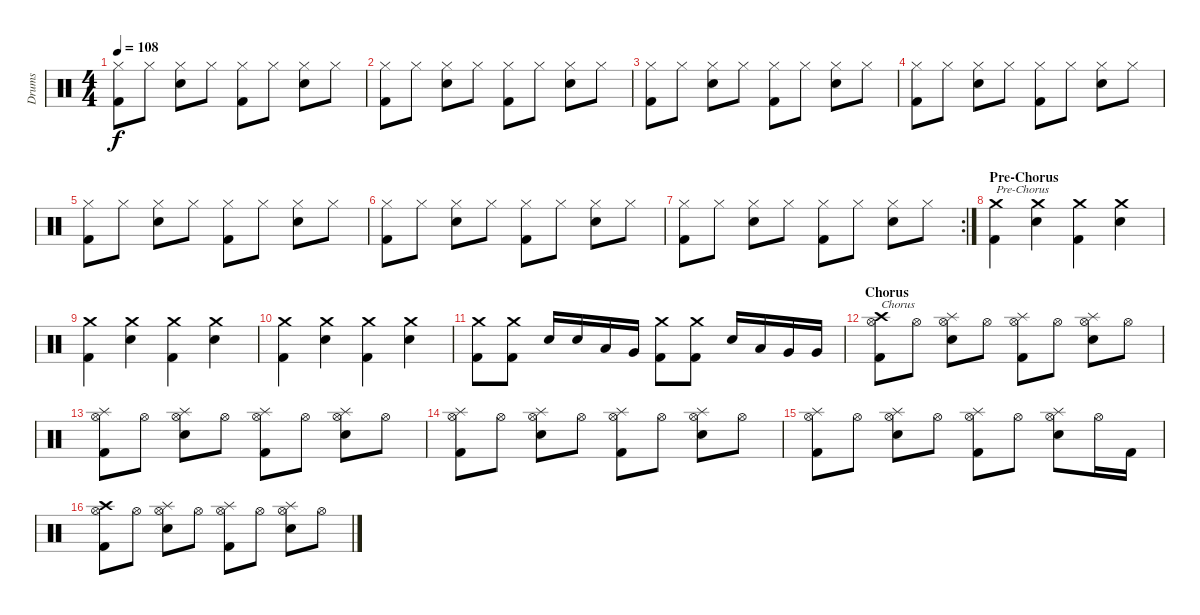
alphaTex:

\track ("Drums" "Drums") {instrument percussion}
\staff {score}
\articulation defaults
\ts (4 4)
\tempo 108
\clef neutral
\ks c
("Hi-Hat (closed)" "Kick (hit) 2").8{dy f} "Hi-Hat (closed)".8 ("Hi-Hat (closed)" "Snare (hit) 2").8 "Hi-Hat (closed)".8 ("Hi-Hat (closed)" "Kick (hit) 2").8 "Hi-Hat (closed)".8 ("Hi-Hat (closed)" "Snare (hit) 2").8 "Hi-Hat (closed)".8 |
("Hi-Hat (closed)" "Kick (hit) 2").8 "Hi-Hat (closed)".8 ("Hi-Hat (closed)" "Snare (hit) 2").8 "Hi-Hat (closed)".8 ("Hi-Hat (closed)" "Kick (hit) 2").8 "Hi-Hat (closed)".8 ("Hi-Hat (closed)" "Snare (hit) 2").8 "Hi-Hat (closed)".8 |
("Hi-Hat (closed)" "Kick (hit) 2").8 "Hi-Hat (closed)".8 ("Hi-Hat (closed)" "Snare (hit) 2").8 "Hi-Hat (closed)".8 ("Hi-Hat (closed)" "Kick (hit) 2").8 "Hi-Hat (closed)".8 ("Hi-Hat (closed)" "Snare (hit) 2").8 "Hi-Hat (closed)".8 |
("Hi-Hat (closed)" "Kick (hit) 2").8 "Hi-Hat (closed)".8 ("Hi-Hat (closed)" "Snare (hit) 2").8 "Hi-Hat (closed)".8 ("Hi-Hat (closed)" "Kick (hit) 2").8 "Hi-Hat (closed)".8 ("Hi-Hat (closed)" "Snare (hit) 2").8 "Hi-Hat (closed)".8 |
("Hi-Hat (closed)" "Kick (hit) 2").8 "Hi-Hat (closed)".8 ("Hi-Hat (closed)" "Snare (hit) 2").8 "Hi-Hat (closed)".8 ("Hi-Hat (closed)" "Kick (hit) 2").8 "Hi-Hat (closed)".8 ("Hi-Hat (closed)" "Snare (hit) 2").8 "Hi-Hat (closed)".8 |
("Hi-Hat (closed)" "Kick (hit) 2").8 "Hi-Hat (closed)".8 ("Hi-Hat (closed)" "Snare (hit) 2").8 "Hi-Hat (closed)".8 ("Hi-Hat (closed)" "Kick (hit) 2").8 "Hi-Hat (closed)".8 ("Hi-Hat (closed)" "Snare (hit) 2").8 "Hi-Hat (closed)".8 |
\rc 2
("Hi-Hat (closed)" "Kick (hit) 2").8 "Hi-Hat (closed)".8 ("Hi-Hat (closed)" "Snare (hit) 2").8 "Hi-Hat (closed)".8 ("Hi-Hat (closed)" "Kick (hit) 2").8 "Hi-Hat (closed)".8 ("Hi-Hat (closed)" "Snare (hit) 2").8 "Hi-Hat (closed)".8 |
\section ("" "Pre-Chorus")
("Crash medium (hit)" "Kick (hit) 2").4{txt "Pre-Chorus"} ("Crash medium (hit)" "Snare (hit) 2").4 ("Crash medium (hit)" "Kick (hit) 2").4 ("Crash medium (hit)" "Snare (hit) 2").4 |
("Crash medium (hit)" "Kick (hit) 2").4 ("Crash medium (hit)" "Snare (hit) 2").4 ("Crash medium (hit)" "Kick (hit) 2").4 ("Crash medium (hit)" "Snare (hit) 2").4 |
("Crash medium (hit)" "Kick (hit) 2").4 ("Crash medium (hit)" "Snare (hit) 2").4 ("Crash medium (hit)" "Kick (hit) 2").4 ("Crash medium (hit)" "Snare (hit) 2").4 |
("Crash medium (hit)" "Kick (hit) 2").8 ("Crash medium (hit)" "Kick (hit) 2").8 "Snare (hit) 2".16 "Snare (hit) 2".16 "Low Tom (hit)".16 "Very Low Tom (hit)".16 ("Crash medium (hit)" "Kick (hit) 2").8 ("Crash medium (hit)" "Kick (hit) 2").8 "Snare (hit) 2".16 "Low Tom (hit)".16 "Very Low Tom (hit)".16 "Very Low Tom (hit)".16 |
\section ("" "Chorus")
("Crash high (hit)" "Hi-Hat (open)" "Kick (hit) 2").8{txt "Chorus"} "Hi-Hat (open)".8 ("Splash (hit)" "Hi-Hat (open)" "Snare (hit) 2").8 "Hi-Hat (open)".8 ("Splash (hit)" "Hi-Hat (open)" "Kick (hit) 2").8 "Hi-Hat (open)".8 ("Splash (hit)" "Hi-Hat (open)" "Snare (hit) 2").8 "Hi-Hat (open)".8 |
("Splash (hit)" "Hi-Hat (open)" "Kick (hit) 2").8 "Hi-Hat (open)".8 ("Splash (hit)" "Hi-Hat (open)" "Snare (hit) 2").8 "Hi-Hat (open)".8 ("Splash (hit)" "Hi-Hat (open)" "Kick (hit) 2").8 "Hi-Hat (open)".8 ("Splash (hit)" "Hi-Hat (open)" "Snare (hit) 2").8 "Hi-Hat (open)".8 |
("Splash (hit)" "Hi-Hat (open)" "Kick (hit) 2").8 "Hi-Hat (open)".8 ("Splash (hit)" "Hi-Hat (open)" "Snare (hit) 2").8 "Hi-Hat (open)".8 ("Splash (hit)" "Hi-Hat (open)" "Kick (hit) 2").8 "Hi-Hat (open)".8 ("Splash (hit)" "Hi-Hat (open)" "Snare (hit) 2").8 "Hi-Hat (open)".8 |
("Splash (hit)" "Hi-Hat (open)" "Kick (hit) 2").8 "Hi-Hat (open)".8 ("Splash (hit)" "Hi-Hat (open)" "Snare (hit) 2").8 "Hi-Hat (open)".8 ("Splash (hit)" "Hi-Hat (open)" "Kick (hit) 2").8 "Hi-Hat (open)".8 ("Splash (hit)" "Hi-Hat (open)" "Snare (hit) 2").8 "Hi-Hat (open)".16 "Kick (hit) 2".16 |
("Crash high (hit)" "Hi-Hat (open)" "Kick (hit) 2").8 "Hi-Hat (open)".8 ("Splash (hit)" "Hi-Hat (open)" "Snare (hit) 2").8 "Hi-Hat (open)".8 ("Splash (hit)" "Hi-Hat (open)" "Kick (hit) 2").8 "Hi-Hat (open)".8 ("Splash (hit)" "Hi-Hat (open)" "Snare (hit) 2").8 "Hi-Hat (open)".8
